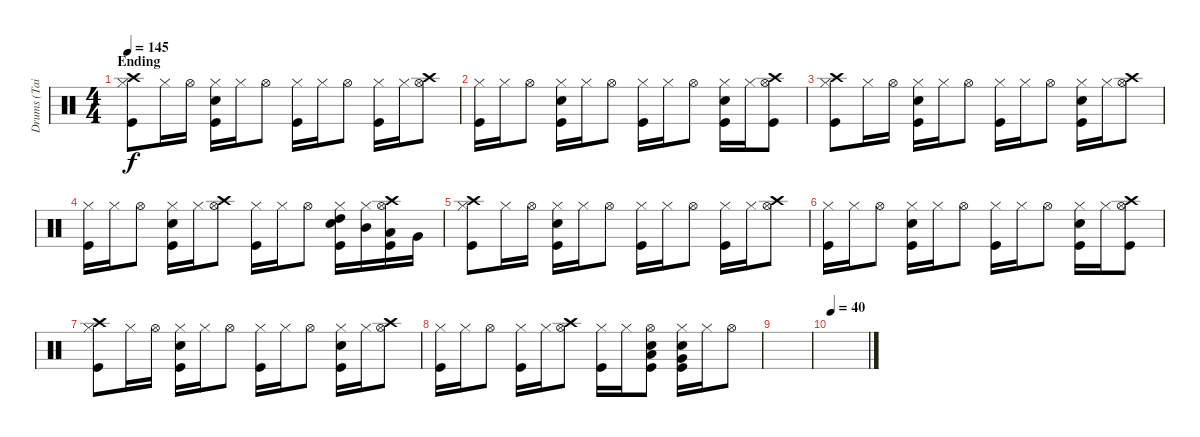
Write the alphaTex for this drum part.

\track ("Drums (Tainaka Ritsu)" "Drums (Tai") {instrument percussion}
\staff {score}
\articulation defaults
\ts (4 4)
\section ("" "Ending")
\tempo 145
\clef neutral
\ks c
("Crash high (hit)" "Hi-Hat (closed)" "Kick (hit)").8{dy f} "Hi-Hat (closed)".16 "Hi-Hat (open)".16 ("Hi-Hat (closed)" "Snare (hit) 2" "Kick (hit)").16 "Hi-Hat (closed)".16 "Hi-Hat (open)".8 ("Hi-Hat (closed)" "Kick (hit)").16 "Hi-Hat (closed)".16 "Hi-Hat (open)".8 ("Hi-Hat (closed)" "Kick (hit)").16 "Hi-Hat (closed)".16 ("Crash high (hit)" "Hi-Hat (open)").8 |
("Hi-Hat (closed)" "Kick (hit)").16 "Hi-Hat (closed)".16 "Hi-Hat (open)".8 ("Hi-Hat (closed)" "Snare (hit) 2" "Kick (hit)").16 "Hi-Hat (closed)".16 "Hi-Hat (open)".8 ("Hi-Hat (closed)" "Kick (hit)").16 "Hi-Hat (closed)".16 "Hi-Hat (open)".8 ("Hi-Hat (closed)" "Snare (hit) 2" "Kick (hit)").16 "Hi-Hat (closed)".16 ("Crash high (hit)" "Hi-Hat (open)" "Kick (hit)").8 |
("Crash high (hit)" "Hi-Hat (closed)" "Kick (hit)").8 "Hi-Hat (closed)".16 "Hi-Hat (open)".16 ("Hi-Hat (closed)" "Snare (hit) 2" "Kick (hit)").16 "Hi-Hat (closed)".16 "Hi-Hat (open)".8 ("Hi-Hat (closed)" "Kick (hit)").16 "Hi-Hat (closed)".16 "Hi-Hat (open)".8 ("Hi-Hat (closed)" "Snare (hit) 2" "Kick (hit)").16 "Hi-Hat (closed)".16 ("Crash high (hit)" "Hi-Hat (open)").8 |
("Hi-Hat (closed)" "Kick (hit)").16 "Hi-Hat (closed)".16 "Hi-Hat (open)".8 ("Hi-Hat (closed)" "Snare (hit) 2" "Kick (hit)").16 "Hi-Hat (closed)".16 ("Crash high (hit)" "Hi-Hat (open)").8 ("Hi-Hat (closed)" "Kick (hit)").16 "Hi-Hat (closed)".16 "Hi-Hat (open)".8 ("Hi-Hat (closed)" "Snare (hit) 2" "High Tom (hit)" "Kick (hit)").16 ("Hi-Hat (closed)" "Mid Tom (hit)").16 ("Crash high (hit)" "Hi-Hat (open)" "Low Tom (hit)" "Kick (hit)").16 "Very Low Tom (hit)".16 |
("Crash high (hit)" "Hi-Hat (closed)" "Kick (hit)").8 "Hi-Hat (closed)".16 "Hi-Hat (open)".16 ("Hi-Hat (closed)" "Snare (hit) 2" "Kick (hit)").16 "Hi-Hat (closed)".16 "Hi-Hat (open)".8 ("Hi-Hat (closed)" "Kick (hit)").16 "Hi-Hat (closed)".16 "Hi-Hat (open)".8 ("Hi-Hat (closed)" "Kick (hit)").16 "Hi-Hat (closed)".16 ("Crash high (hit)" "Hi-Hat (open)").8 |
("Hi-Hat (closed)" "Kick (hit)").16 "Hi-Hat (closed)".16 "Hi-Hat (open)".8 ("Hi-Hat (closed)" "Snare (hit) 2" "Kick (hit)").16 "Hi-Hat (closed)".16 "Hi-Hat (open)".8 ("Hi-Hat (closed)" "Kick (hit)").16 "Hi-Hat (closed)".16 "Hi-Hat (open)".8 ("Hi-Hat (closed)" "Snare (hit) 2" "Kick (hit)").16 "Hi-Hat (closed)".16 ("Crash high (hit)" "Hi-Hat (open)" "Kick (hit)").8 |
("Crash high (hit)" "Hi-Hat (closed)" "Kick (hit)").8 "Hi-Hat (closed)".16 "Hi-Hat (open)".16 ("Hi-Hat (closed)" "Snare (hit) 2" "Kick (hit)").16 "Hi-Hat (closed)".16 "Hi-Hat (open)".8 ("Hi-Hat (closed)" "Kick (hit)").16 "Hi-Hat (closed)".16 "Hi-Hat (open)".8 ("Hi-Hat (closed)" "Snare (hit) 2" "Kick (hit)").16 "Hi-Hat (closed)".16 ("Crash high (hit)" "Hi-Hat (open)").8 |
("Hi-Hat (closed)" "Kick (hit)").16 "Hi-Hat (closed)".16 "Hi-Hat (open)".8 ("Hi-Hat (closed)" "Kick (hit)").16 "Hi-Hat (closed)".16 ("Crash high (hit)" "Hi-Hat (open)").8 ("Hi-Hat (closed)" "Kick (hit)").16 "Hi-Hat (closed)".16 ("Hi-Hat (open)" "Snare (hit) 2" "Low Tom (hit)" "Kick (hit)").8 ("Hi-Hat (closed)" "Snare (hit) 2" "Very Low Tom (hit)" "Kick (hit)").16 "Hi-Hat (closed)".16 "Hi-Hat (open)".8 |
|
\tempo 40
